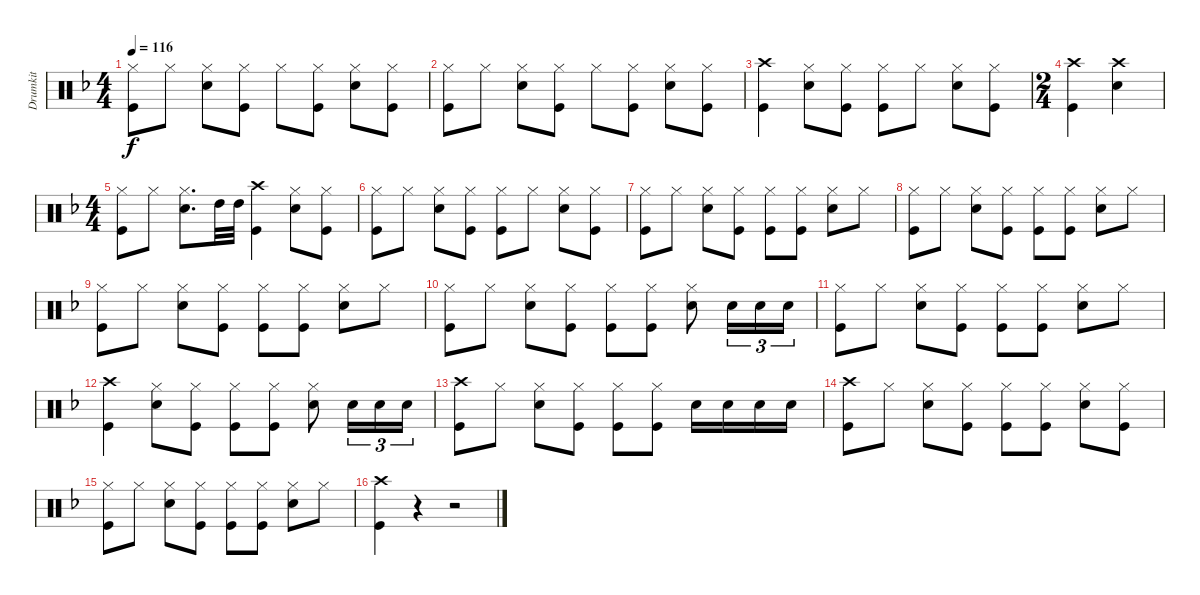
\track ("Drumkit" "Drumkit") {instrument percussion}
\staff {score}
\articulation defaults
\ts (4 4)
\tempo 116
\clef neutral
\ks dminor
("Hi-Hat (closed)" "Kick (hit)").8{dy f} "Hi-Hat (closed)".8 ("Hi-Hat (closed)" "Snare (hit) 2").8 ("Hi-Hat (closed)" "Kick (hit)").8 "Hi-Hat (closed)".8 ("Hi-Hat (closed)" "Kick (hit)").8 ("Hi-Hat (closed)" "Snare (hit) 2").8 ("Hi-Hat (closed)" "Kick (hit)").8 |
("Hi-Hat (closed)" "Kick (hit)").8 "Hi-Hat (closed)".8 ("Hi-Hat (closed)" "Snare (hit) 2").8 ("Hi-Hat (closed)" "Kick (hit)").8 "Hi-Hat (closed)".8 ("Hi-Hat (closed)" "Kick (hit)").8 ("Hi-Hat (closed)" "Snare (hit) 2").8 ("Hi-Hat (closed)" "Kick (hit)").8 |
("Crash high (hit)" "Kick (hit)").4 ("Hi-Hat (closed)" "Snare (hit) 2").8 ("Hi-Hat (closed)" "Kick (hit)").8 ("Hi-Hat (closed)" "Kick (hit)").8 "Hi-Hat (closed)".8 ("Hi-Hat (closed)" "Snare (hit) 2").8 ("Hi-Hat (closed)" "Kick (hit)").8 |
\ts (2 4)
("Crash high (hit)" "Kick (hit)").4 ("Crash high (hit)" "Snare (hit) 2").4 |
\ts (4 4)
("Hi-Hat (closed)" "Kick (hit)").8 "Hi-Hat (closed)".8 ("Hi-Hat (closed)" "Snare (hit) 2").8{d} "High Tom (hit)".32 "High Tom (hit)".32 ("Crash high (hit)" "Kick (hit)").4 ("Hi-Hat (closed)" "Snare (hit) 2").8 ("Hi-Hat (closed)" "Kick (hit)").8 |
("Hi-Hat (closed)" "Kick (hit)").8 "Hi-Hat (closed)".8 ("Hi-Hat (closed)" "Snare (hit) 2").8 ("Hi-Hat (closed)" "Kick (hit)").8 ("Hi-Hat (closed)" "Kick (hit)").8 "Hi-Hat (closed)".8 ("Hi-Hat (closed)" "Snare (hit) 2").8 ("Hi-Hat (closed)" "Kick (hit)").8 |
("Hi-Hat (closed)" "Kick (hit)").8 "Hi-Hat (closed)".8 ("Hi-Hat (closed)" "Snare (hit) 2").8 ("Hi-Hat (closed)" "Kick (hit)").8 ("Hi-Hat (closed)" "Kick (hit)").8 ("Hi-Hat (closed)" "Kick (hit)").8 ("Hi-Hat (closed)" "Snare (hit) 2").8 "Hi-Hat (closed)".8 |
("Hi-Hat (closed)" "Kick (hit)").8 "Hi-Hat (closed)".8 ("Hi-Hat (closed)" "Snare (hit) 2").8 ("Hi-Hat (closed)" "Kick (hit)").8 ("Hi-Hat (closed)" "Kick (hit)").8 ("Hi-Hat (closed)" "Kick (hit)").8 ("Hi-Hat (closed)" "Snare (hit) 2").8 "Hi-Hat (closed)".8 |
("Hi-Hat (closed)" "Kick (hit)").8 "Hi-Hat (closed)".8 ("Hi-Hat (closed)" "Snare (hit) 2").8 ("Hi-Hat (closed)" "Kick (hit)").8 ("Hi-Hat (closed)" "Kick (hit)").8 ("Hi-Hat (closed)" "Kick (hit)").8 ("Hi-Hat (closed)" "Snare (hit) 2").8 "Hi-Hat (closed)".8 |
("Hi-Hat (closed)" "Kick (hit)").8 "Hi-Hat (closed)".8 ("Hi-Hat (closed)" "Snare (hit) 2").8 ("Hi-Hat (closed)" "Kick (hit)").8 ("Hi-Hat (closed)" "Kick (hit)").8 ("Hi-Hat (closed)" "Kick (hit)").8 ("Hi-Hat (closed)" "Snare (hit) 2").8 "Snare (hit) 2".16{tu (3 2)} "Snare (hit) 2".16{tu (3 2)} "Snare (hit) 2".16{tu (3 2)} |
("Hi-Hat (closed)" "Kick (hit)").8 "Hi-Hat (closed)".8 ("Hi-Hat (closed)" "Snare (hit) 2").8 ("Hi-Hat (closed)" "Kick (hit)").8 ("Hi-Hat (closed)" "Kick (hit)").8 ("Hi-Hat (closed)" "Kick (hit)").8 ("Hi-Hat (closed)" "Snare (hit) 2").8 "Hi-Hat (closed)".8 |
("Crash high (hit)" "Kick (hit)").4 ("Hi-Hat (closed)" "Snare (hit) 2").8 ("Hi-Hat (closed)" "Kick (hit)").8 ("Hi-Hat (closed)" "Kick (hit)").8 ("Hi-Hat (closed)" "Kick (hit)").8 ("Hi-Hat (closed)" "Snare (hit) 2").8 "Snare (hit) 2".16{tu (3 2)} "Snare (hit) 2".16{tu (3 2)} "Snare (hit) 2".16{tu (3 2)} |
("Crash high (hit)" "Kick (hit)").8 "Hi-Hat (closed)".8 ("Hi-Hat (closed)" "Snare (hit) 2").8 ("Hi-Hat (closed)" "Kick (hit)").8 ("Hi-Hat (closed)" "Kick (hit)").8 ("Hi-Hat (closed)" "Kick (hit)").8 "Snare (hit) 2".16 "Snare (hit) 2".16 "Snare (hit) 2".16 "Snare (hit) 2".16 |
("Crash high (hit)" "Kick (hit)").8 "Hi-Hat (closed)".8 ("Hi-Hat (closed)" "Snare (hit) 2").8 ("Hi-Hat (closed)" "Kick (hit)").8 ("Hi-Hat (closed)" "Kick (hit)").8 ("Hi-Hat (closed)" "Kick (hit)").8 ("Hi-Hat (closed)" "Snare (hit) 2").8 ("Hi-Hat (closed)" "Kick (hit)").8 |
("Hi-Hat (closed)" "Kick (hit)").8 "Hi-Hat (closed)".8 ("Hi-Hat (closed)" "Snare (hit) 2").8 ("Hi-Hat (closed)" "Kick (hit)").8 ("Hi-Hat (closed)" "Kick (hit)").8 ("Hi-Hat (closed)" "Kick (hit)").8 ("Hi-Hat (closed)" "Snare (hit) 2").8 "Hi-Hat (closed)".8 |
("Crash high (hit)" "Kick (hit)").4 r.4 r.2
